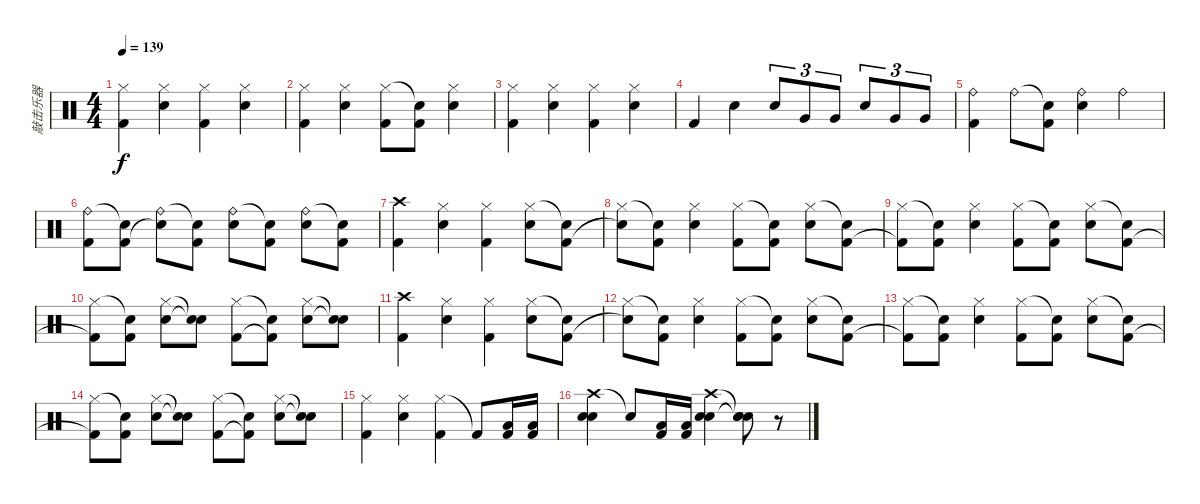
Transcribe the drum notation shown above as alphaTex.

\track ("敲击乐器" "敲击乐器") {instrument percussion}
\staff {score}
\articulation defaults
\ts (4 4)
\tempo 139
\clef neutral
\ks c
("Hi-Hat (closed)" "Kick (hit) 2").4{dy f} ("Hi-Hat (closed)" "Snare (hit) 2").4 ("Hi-Hat (closed)" "Kick (hit) 2").4 ("Hi-Hat (closed)" "Snare (hit) 2").4 |
("Hi-Hat (closed)" "Kick (hit) 2").4 ("Hi-Hat (closed)" "Snare (hit) 2").4 ("Hi-Hat (closed)" "Kick (hit) 2").8 ("Snare (hit)"{t} "Kick (hit) 2").8 ("Hi-Hat (closed)" "Snare (hit) 2").4 |
("Hi-Hat (closed)" "Kick (hit) 2").4 ("Hi-Hat (closed)" "Snare (hit) 2").4 ("Hi-Hat (closed)" "Kick (hit) 2").4 ("Hi-Hat (closed)" "Snare (hit) 2").4 |
"Kick (hit) 2".4 "Snare (hit) 2".4 "Snare (hit) 2".8{tu (3 2)} "Very Low Tom (hit)".8{tu (3 2)} "Very Low Tom (hit)".8{tu (3 2)} "Snare (hit) 2".8{tu (3 2)} "Very Low Tom (hit)".8{tu (3 2)} "Very Low Tom (hit)".8{tu (3 2)} |
("Ride (bell)" "Kick (hit) 2").4 "Ride (bell)".8 ("Snare (hit)"{t} "Kick (hit) 2").8 ("Ride (bell)" "Snare (hit) 2").4 "Ride (bell)".4 |
("Ride (bell)" "Kick (hit) 2").8 ("Snare (hit)"{t} "Kick (hit) 2").8 ("Ride (bell)" "Snare (hit)"{t}).8 ("Snare (hit)"{t} "Kick (hit) 2").8 ("Ride (bell)" "Snare (hit) 2").8 ("Snare (hit)"{t} "Kick (hit) 2").8 ("Ride (bell)" "Snare (hit) 2").8 ("Snare (hit)"{t} "Kick (hit) 2").8 |
("Crash high (hit)" "Kick (hit) 2").4 ("Hi-Hat (closed)" "Snare (hit) 2").4 ("Hi-Hat (closed)" "Kick (hit) 2").4 ("Hi-Hat (closed)" "Snare (hit) 2").8 ("Snare (hit)"{t} "Kick (hit) 2").8 |
("Hi-Hat (closed)" "Snare (hit)"{t}).8 ("Snare (hit)"{t} "Kick (hit) 2").8 ("Hi-Hat (closed)" "Snare (hit) 2").4 ("Hi-Hat (closed)" "Kick (hit) 2").8 ("Snare (hit)"{t} "Kick (hit) 2").8 ("Hi-Hat (closed)" "Snare (hit) 2").8 ("Snare (hit)"{t} "Kick (hit) 2").8 |
("Hi-Hat (closed)" "Kick (hit) 2"{t}).8 ("Snare (hit)"{t} "Kick (hit) 2").8 ("Hi-Hat (closed)" "Snare (hit) 2").4 ("Hi-Hat (closed)" "Kick (hit) 2").8 ("Snare (hit)"{t} "Kick (hit) 2").8 ("Hi-Hat (closed)" "Snare (hit) 2").8 ("Snare (hit)"{t} "Kick (hit) 2").8 |
("Hi-Hat (closed)" "Kick (hit) 2"{t}).8 ("Snare (hit)"{t} "Kick (hit) 2").8 ("Hi-Hat (closed)" "Snare (hit) 2").8 ("Snare (hit)"{t} "Snare (hit)"{t}).8 ("Hi-Hat (closed)" "Kick (hit) 2").8 ("Snare (hit)"{t} "Kick (hit) 2"{t}).8 ("Hi-Hat (closed)" "Snare (hit) 2").8 ("Snare (hit)"{t} "Snare (hit)"{t}).8 |
("Crash high (hit)" "Kick (hit) 2").4 ("Hi-Hat (closed)" "Snare (hit) 2").4 ("Hi-Hat (closed)" "Kick (hit) 2").4 ("Hi-Hat (closed)" "Snare (hit) 2").8 ("Snare (hit)"{t} "Kick (hit) 2").8 |
("Hi-Hat (closed)" "Snare (hit)"{t}).8 ("Snare (hit)"{t} "Kick (hit) 2").8 ("Hi-Hat (closed)" "Snare (hit) 2").4 ("Hi-Hat (closed)" "Kick (hit) 2").8 ("Snare (hit)"{t} "Kick (hit) 2").8 ("Hi-Hat (closed)" "Snare (hit) 2").8 ("Snare (hit)"{t} "Kick (hit) 2").8 |
("Hi-Hat (closed)" "Kick (hit) 2"{t}).8 ("Snare (hit)"{t} "Kick (hit) 2").8 ("Hi-Hat (closed)" "Snare (hit) 2").4 ("Hi-Hat (closed)" "Kick (hit) 2").8 ("Snare (hit)"{t} "Kick (hit) 2").8 ("Hi-Hat (closed)" "Snare (hit) 2").8 ("Snare (hit)"{t} "Kick (hit) 2").8 |
("Hi-Hat (closed)" "Kick (hit) 2"{t}).8 ("Snare (hit)"{t} "Kick (hit) 2").8 ("Hi-Hat (closed)" "Snare (hit) 2").8 ("Snare (hit)"{t} "Snare (hit)"{t}).8 ("Hi-Hat (closed)" "Kick (hit) 2").8 ("Snare (hit)"{t} "Kick (hit) 2"{t}).8 ("Hi-Hat (closed)" "Snare (hit) 2").8 ("Snare (hit)"{t} "Snare (hit)"{t}).8 |
("Hi-Hat (closed)" "Kick (hit) 2").4 ("Hi-Hat (closed)" "Snare (hit) 2").4 ("Hi-Hat (closed)" "Kick (hit) 2").4 "Kick (hit) 2"{t}.8 ("Low Tom (hit)" "Kick (hit) 2").16 ("Low Tom (hit)" "Kick (hit) 2").16 |
("Crash high (hit)" "Snare (hit) 2" "Snare (hit) 2").4 "Snare (hit)"{t}.8 ("Low Tom (hit)" "Kick (hit) 2").16 ("Low Tom (hit)" "Kick (hit) 2").16 ("Crash high (hit)" "Snare (hit) 2" "Snare (hit) 2").4 ("Snare (hit)"{t} "Snare (hit)"{t} "Snare (hit)"{t}).8 r.8
